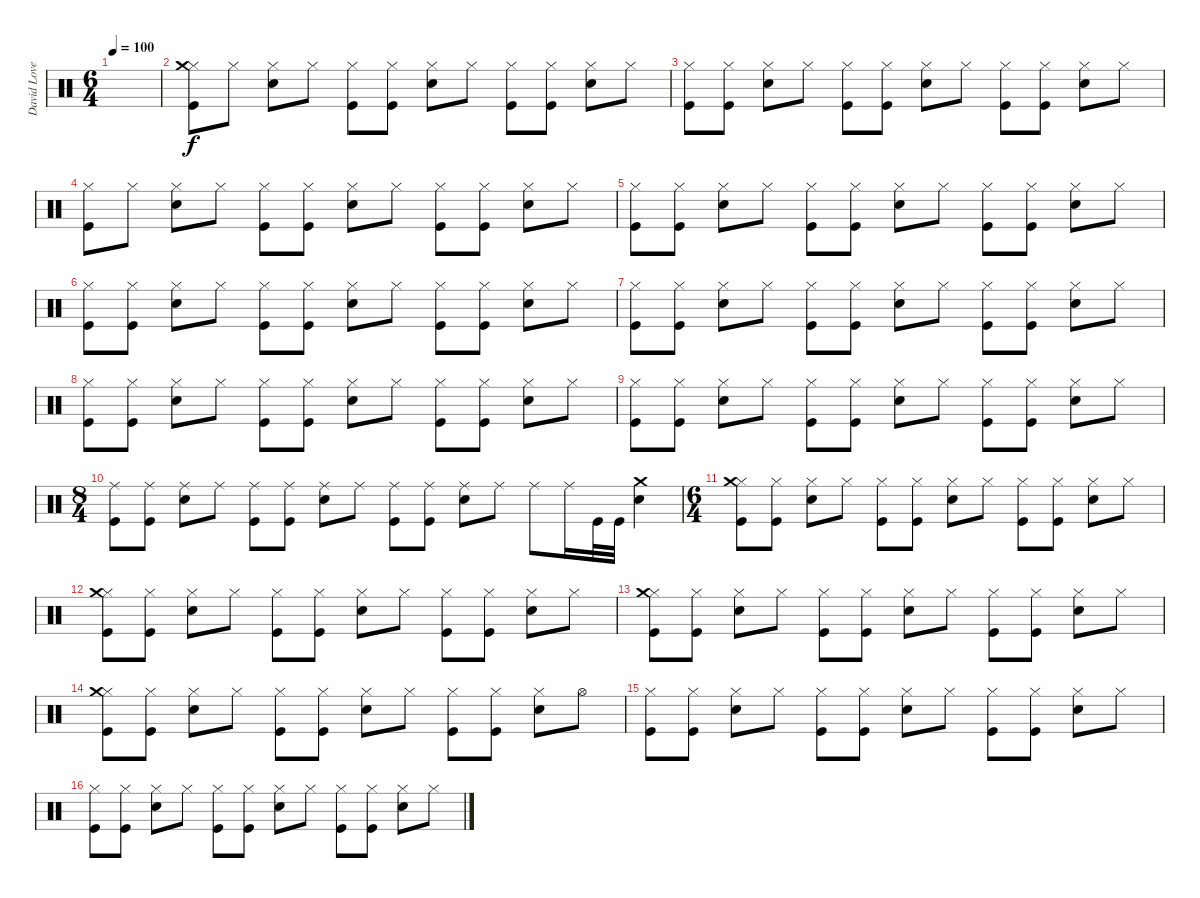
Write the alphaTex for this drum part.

\track ("David Lovering" "David Love") {instrument percussion}
\staff {score}
\articulation defaults
\ts (6 4)
\tempo 100
\clef neutral
\ks c
|
("Hi-Hat (closed)" "Crash medium (hit)" "Kick (hit)").8 "Hi-Hat (closed)".8 ("Hi-Hat (closed)" "Snare (hit) 2").8 "Hi-Hat (closed)".8 ("Hi-Hat (closed)" "Kick (hit)").8 ("Hi-Hat (closed)" "Kick (hit)").8 ("Hi-Hat (closed)" "Snare (hit) 2").8 "Hi-Hat (closed)".8 ("Hi-Hat (closed)" "Kick (hit)").8 ("Hi-Hat (closed)" "Kick (hit)").8 ("Hi-Hat (closed)" "Snare (hit) 2").8 "Hi-Hat (closed)".8 |
("Hi-Hat (closed)" "Kick (hit)").8 ("Hi-Hat (closed)" "Kick (hit)").8 ("Hi-Hat (closed)" "Snare (hit) 2").8 "Hi-Hat (closed)".8 ("Hi-Hat (closed)" "Kick (hit)").8 ("Hi-Hat (closed)" "Kick (hit)").8 ("Hi-Hat (closed)" "Snare (hit) 2").8 "Hi-Hat (closed)".8 ("Hi-Hat (closed)" "Kick (hit)").8 ("Hi-Hat (closed)" "Kick (hit)").8 ("Hi-Hat (closed)" "Snare (hit) 2").8 "Hi-Hat (closed)".8 |
("Hi-Hat (closed)" "Kick (hit)").8 "Hi-Hat (closed)".8 ("Hi-Hat (closed)" "Snare (hit) 2").8 "Hi-Hat (closed)".8 ("Hi-Hat (closed)" "Kick (hit)").8 ("Hi-Hat (closed)" "Kick (hit)").8 ("Hi-Hat (closed)" "Snare (hit) 2").8 "Hi-Hat (closed)".8 ("Hi-Hat (closed)" "Kick (hit)").8 ("Hi-Hat (closed)" "Kick (hit)").8 ("Hi-Hat (closed)" "Snare (hit) 2").8 "Hi-Hat (closed)".8 |
("Hi-Hat (closed)" "Kick (hit)").8 ("Hi-Hat (closed)" "Kick (hit)").8 ("Hi-Hat (closed)" "Snare (hit) 2").8 "Hi-Hat (closed)".8 ("Hi-Hat (closed)" "Kick (hit)").8 ("Hi-Hat (closed)" "Kick (hit)").8 ("Hi-Hat (closed)" "Snare (hit) 2").8 "Hi-Hat (closed)".8 ("Hi-Hat (closed)" "Kick (hit)").8 ("Hi-Hat (closed)" "Kick (hit)").8 ("Hi-Hat (closed)" "Snare (hit) 2").8 "Hi-Hat (closed)".8 |
\section ("" "")
("Hi-Hat (closed)" "Kick (hit)").8 ("Hi-Hat (closed)" "Kick (hit)").8 ("Hi-Hat (closed)" "Snare (hit) 2").8 "Hi-Hat (closed)".8 ("Hi-Hat (closed)" "Kick (hit)").8 ("Hi-Hat (closed)" "Kick (hit)").8 ("Hi-Hat (closed)" "Snare (hit) 2").8 "Hi-Hat (closed)".8 ("Hi-Hat (closed)" "Kick (hit)").8 ("Hi-Hat (closed)" "Kick (hit)").8 ("Hi-Hat (closed)" "Snare (hit) 2").8 "Hi-Hat (closed)".8 |
("Hi-Hat (closed)" "Kick (hit)").8 ("Hi-Hat (closed)" "Kick (hit)").8 ("Hi-Hat (closed)" "Snare (hit) 2").8 "Hi-Hat (closed)".8 ("Hi-Hat (closed)" "Kick (hit)").8 ("Hi-Hat (closed)" "Kick (hit)").8 ("Hi-Hat (closed)" "Snare (hit) 2").8 "Hi-Hat (closed)".8 ("Hi-Hat (closed)" "Kick (hit)").8 ("Hi-Hat (closed)" "Kick (hit)").8 ("Hi-Hat (closed)" "Snare (hit) 2").8 "Hi-Hat (closed)".8 |
("Hi-Hat (closed)" "Kick (hit)").8 ("Hi-Hat (closed)" "Kick (hit)").8 ("Hi-Hat (closed)" "Snare (hit) 2").8 "Hi-Hat (closed)".8 ("Hi-Hat (closed)" "Kick (hit)").8 ("Hi-Hat (closed)" "Kick (hit)").8 ("Hi-Hat (closed)" "Snare (hit) 2").8 "Hi-Hat (closed)".8 ("Hi-Hat (closed)" "Kick (hit)").8 ("Hi-Hat (closed)" "Kick (hit)").8 ("Hi-Hat (closed)" "Snare (hit) 2").8 "Hi-Hat (closed)".8 |
("Hi-Hat (closed)" "Kick (hit)").8 ("Hi-Hat (closed)" "Kick (hit)").8 ("Hi-Hat (closed)" "Snare (hit) 2").8 "Hi-Hat (closed)".8 ("Hi-Hat (closed)" "Kick (hit)").8 ("Hi-Hat (closed)" "Kick (hit)").8 ("Hi-Hat (closed)" "Snare (hit) 2").8 "Hi-Hat (closed)".8 ("Hi-Hat (closed)" "Kick (hit)").8 ("Hi-Hat (closed)" "Kick (hit)").8 ("Hi-Hat (closed)" "Snare (hit) 2").8 "Hi-Hat (closed)".8 |
\ts (8 4)
\section ("" "")
("Ride (middle)" "Kick (hit)").8 ("Ride (middle)" "Kick (hit)").8 ("Ride (middle)" "Snare (hit) 2").8 "Ride (middle)".8 ("Ride (middle)" "Kick (hit)").8 ("Ride (middle)" "Kick (hit)").8 ("Ride (middle)" "Snare (hit) 2").8 "Ride (middle)".8 ("Ride (middle)" "Kick (hit)").8 ("Ride (middle)" "Kick (hit)").8 ("Ride (middle)" "Snare (hit) 2").8 "Ride (middle)".8 "Ride (middle)".8 "Ride (middle)".16 "Kick (hit)".32 "Kick (hit)".32 ("Crash medium (hit)" "Snare (hit) 2").4 |
\ts (6 4)
("Hi-Hat (closed)" "Crash medium (hit)" "Kick (hit)").8 ("Hi-Hat (closed)" "Kick (hit)").8 ("Hi-Hat (closed)" "Snare (hit) 2").8 "Hi-Hat (closed)".8 ("Hi-Hat (closed)" "Kick (hit)").8 ("Hi-Hat (closed)" "Kick (hit)").8 ("Hi-Hat (closed)" "Snare (hit) 2").8 "Hi-Hat (closed)".8 ("Hi-Hat (closed)" "Kick (hit)").8 ("Hi-Hat (closed)" "Kick (hit)").8 ("Hi-Hat (closed)" "Snare (hit) 2").8 "Hi-Hat (closed)".8 |
("Hi-Hat (closed)" "Crash medium (hit)" "Kick (hit)").8 ("Hi-Hat (closed)" "Kick (hit)").8 ("Hi-Hat (closed)" "Snare (hit) 2").8 "Hi-Hat (closed)".8 ("Hi-Hat (closed)" "Kick (hit)").8 ("Hi-Hat (closed)" "Kick (hit)").8 ("Hi-Hat (closed)" "Snare (hit) 2").8 "Hi-Hat (closed)".8 ("Hi-Hat (closed)" "Kick (hit)").8 ("Hi-Hat (closed)" "Kick (hit)").8 ("Hi-Hat (closed)" "Snare (hit) 2").8 "Hi-Hat (closed)".8 |
("Hi-Hat (closed)" "Crash medium (hit)" "Kick (hit)").8 ("Hi-Hat (closed)" "Kick (hit)").8 ("Hi-Hat (closed)" "Snare (hit) 2").8 "Hi-Hat (closed)".8 ("Hi-Hat (closed)" "Kick (hit)").8 ("Hi-Hat (closed)" "Kick (hit)").8 ("Hi-Hat (closed)" "Snare (hit) 2").8 "Hi-Hat (closed)".8 ("Hi-Hat (closed)" "Kick (hit)").8 ("Hi-Hat (closed)" "Kick (hit)").8 ("Hi-Hat (closed)" "Snare (hit) 2").8 "Hi-Hat (closed)".8 |
("Hi-Hat (closed)" "Crash medium (hit)" "Kick (hit)").8 ("Hi-Hat (closed)" "Kick (hit)").8 ("Hi-Hat (closed)" "Snare (hit) 2").8 "Hi-Hat (closed)".8 ("Hi-Hat (closed)" "Kick (hit)").8 ("Hi-Hat (closed)" "Kick (hit)").8 ("Hi-Hat (closed)" "Snare (hit) 2").8 "Hi-Hat (closed)".8 ("Hi-Hat (closed)" "Kick (hit)").8 ("Hi-Hat (closed)" "Kick (hit)").8 ("Hi-Hat (closed)" "Snare (hit) 2").8 "Hi-Hat (open)".8 |
\section ("" "")
("Hi-Hat (closed)" "Kick (hit)").8 ("Hi-Hat (closed)" "Kick (hit)").8 ("Hi-Hat (closed)" "Snare (hit) 2").8 "Hi-Hat (closed)".8 ("Hi-Hat (closed)" "Kick (hit)").8 ("Hi-Hat (closed)" "Kick (hit)").8 ("Hi-Hat (closed)" "Snare (hit) 2").8 "Hi-Hat (closed)".8 ("Hi-Hat (closed)" "Kick (hit)").8 ("Hi-Hat (closed)" "Kick (hit)").8 ("Hi-Hat (closed)" "Snare (hit) 2").8 "Hi-Hat (closed)".8 |
("Hi-Hat (closed)" "Kick (hit)").8 ("Hi-Hat (closed)" "Kick (hit)").8 ("Hi-Hat (closed)" "Snare (hit) 2").8 "Hi-Hat (closed)".8 ("Hi-Hat (closed)" "Kick (hit)").8 ("Hi-Hat (closed)" "Kick (hit)").8 ("Hi-Hat (closed)" "Snare (hit) 2").8 "Hi-Hat (closed)".8 ("Hi-Hat (closed)" "Kick (hit)").8 ("Hi-Hat (closed)" "Kick (hit)").8 ("Hi-Hat (closed)" "Snare (hit) 2").8 "Hi-Hat (closed)".8
